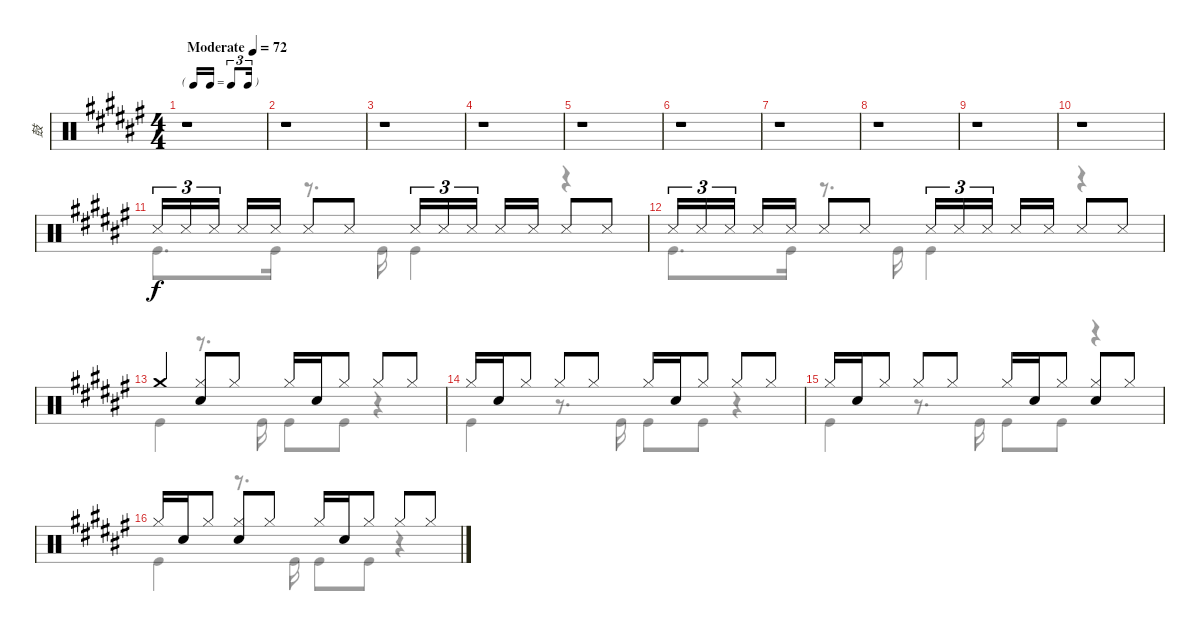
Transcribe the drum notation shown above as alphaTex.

\track ("鼓" "鼓") {instrument percussion}
\staff {score}
\articulation defaults
\voice
\ts (4 4)
\tf triplet16th
\tempo (72 "Moderate")
\clef neutral
\ks f#
r.1{dy f} |
r.1 |
r.1 |
r.1 |
r.1 |
r.1 |
r.1 |
r.1 |
r.1 |
r.1 |
"Snare (side stick) 3".16{tu (3 2)} "Snare (side stick) 3".16{tu (3 2)} "Snare (side stick) 3".16{tu (3 2) beam splitsecondary} "Snare (side stick) 3".16 "Snare (side stick) 3".16 "Snare (side stick) 3".8 "Snare (side stick) 3".8 "Snare (side stick) 3".16{tu (3 2)} "Snare (side stick) 3".16{tu (3 2)} "Snare (side stick) 3".16{tu (3 2) beam splitsecondary} "Snare (side stick) 3".16 "Snare (side stick) 3".16 "Snare (side stick) 3".8 "Snare (side stick) 3".8 |
"Snare (side stick) 3".16{tu (3 2)} "Snare (side stick) 3".16{tu (3 2)} "Snare (side stick) 3".16{tu (3 2) beam splitsecondary} "Snare (side stick) 3".16 "Snare (side stick) 3".16 "Snare (side stick) 3".8 "Snare (side stick) 3".8 "Snare (side stick) 3".16{tu (3 2)} "Snare (side stick) 3".16{tu (3 2)} "Snare (side stick) 3".16{tu (3 2) beam splitsecondary} "Snare (side stick) 3".16 "Snare (side stick) 3".16 "Snare (side stick) 3".8 "Snare (side stick) 3".8 |
"Crash medium (hit)".4 ("Hi-Hat (closed)" "Snare (hit) 2").8 "Hi-Hat (closed)".8 "Hi-Hat (closed)".16 "Snare (hit) 2".16 "Hi-Hat (closed)".8 "Hi-Hat (closed)".8 "Hi-Hat (closed)".8 |
"Hi-Hat (closed)".16 "Snare (hit) 2".16 "Hi-Hat (closed)".8 "Hi-Hat (closed)".8 "Hi-Hat (closed)".8 "Hi-Hat (closed)".16 "Snare (hit) 2".16 "Hi-Hat (closed)".8 "Hi-Hat (closed)".8 "Hi-Hat (closed)".8 |
"Hi-Hat (closed)".16 "Snare (hit) 2".16 "Hi-Hat (closed)".8 "Hi-Hat (closed)".8 "Hi-Hat (closed)".8 "Hi-Hat (closed)".16 "Snare (hit) 2".16 "Hi-Hat (closed)".8 ("Hi-Hat (closed)" "Snare (hit) 2").8 "Hi-Hat (closed)".8 |
"Hi-Hat (closed)".16 "Snare (hit) 2".16 "Hi-Hat (closed)".8 ("Hi-Hat (closed)" "Snare (hit) 2").8 "Hi-Hat (closed)".8 "Hi-Hat (closed)".16 "Snare (hit) 2".16 "Hi-Hat (closed)".8 "Hi-Hat (closed)".8 "Hi-Hat (closed)".8
\voice
\clef neutral
\ottava regular
\simile none
\ks f#
|
|
|
|
|
|
|
|
|
|
"Kick (hit)".8{d} "Kick (hit)".16 r.8{d} "Kick (hit)".16 "Kick (hit)".4 r.4 |
"Kick (hit)".8{d} "Kick (hit)".16 r.8{d} "Kick (hit)".16 "Kick (hit)".4 r.4 |
"Kick (hit)".4 r.8{d} "Kick (hit)".16 "Kick (hit)".8 "Kick (hit)".8 r.4 |
"Kick (hit)".4 r.8{d} "Kick (hit)".16 "Kick (hit)".8 "Kick (hit)".8 r.4 |
"Kick (hit)".4 r.8{d} "Kick (hit)".16 "Kick (hit)".8 "Kick (hit)".8 r.4 |
"Kick (hit)".4 r.8{d} "Kick (hit)".16 "Kick (hit)".8 "Kick (hit)".8 r.4
